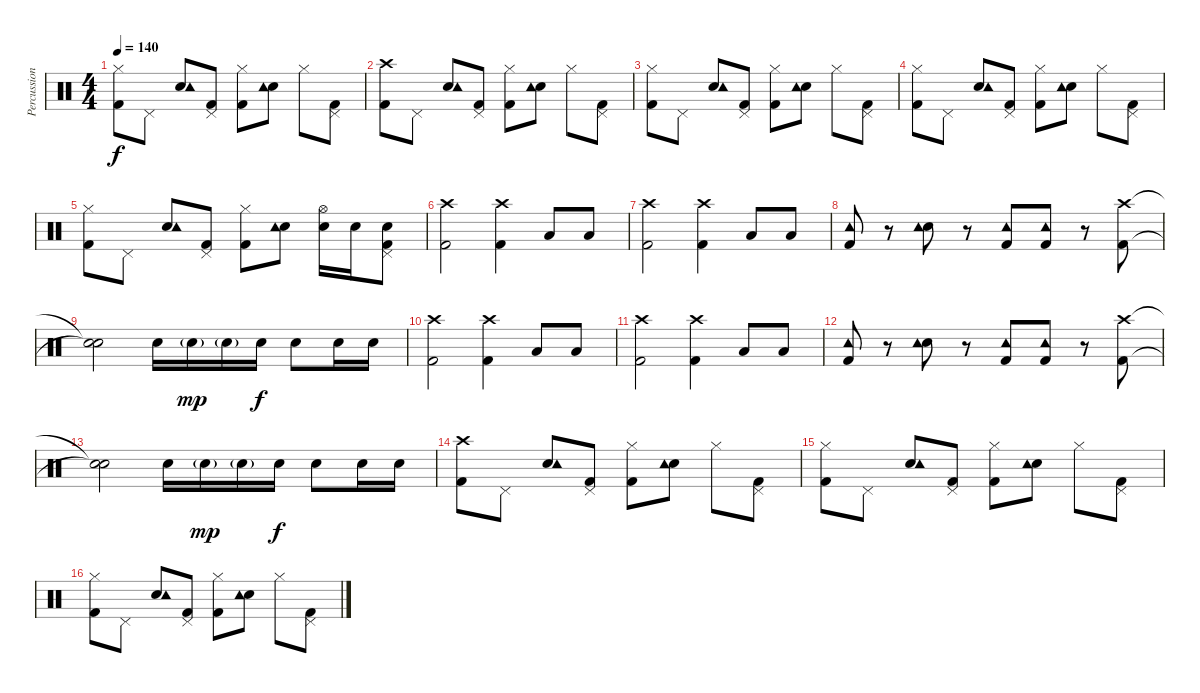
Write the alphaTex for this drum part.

\track ("Percussion" "Percussion") {instrument percussion}
\staff {score}
\articulation defaults
\ts (4 4)
\tempo 140
\clef neutral
\ks c
("Kick (hit) 2" "Hi-Hat (closed)").8{dy f} "Pedal Hi-Hat (hit)".8 ("Electric Snare (hit)" "Tambourine (hit)").8 ("Kick (hit) 2" "Pedal Hi-Hat (hit)").8 ("Kick (hit) 2" "Hi-Hat (closed)").8 ("Electric Snare (hit)" "Tambourine (hit)").8 "Hi-Hat (closed)".8 ("Kick (hit) 2" "Pedal Hi-Hat (hit)").8 |
("Kick (hit) 2" "Crash high (hit)").8 "Pedal Hi-Hat (hit)".8 ("Electric Snare (hit)" "Tambourine (hit)").8 ("Kick (hit) 2" "Pedal Hi-Hat (hit)").8 ("Kick (hit) 2" "Hi-Hat (closed)").8 ("Electric Snare (hit)" "Tambourine (hit)").8 "Hi-Hat (closed)".8 ("Kick (hit) 2" "Pedal Hi-Hat (hit)").8 |
("Kick (hit) 2" "Hi-Hat (closed)").8 "Pedal Hi-Hat (hit)".8 ("Electric Snare (hit)" "Tambourine (hit)").8 ("Kick (hit) 2" "Pedal Hi-Hat (hit)").8 ("Kick (hit) 2" "Hi-Hat (closed)").8 ("Electric Snare (hit)" "Tambourine (hit)").8 "Hi-Hat (closed)".8 ("Kick (hit) 2" "Pedal Hi-Hat (hit)").8 |
("Kick (hit) 2" "Hi-Hat (closed)").8 "Pedal Hi-Hat (hit)".8 ("Electric Snare (hit)" "Tambourine (hit)").8 ("Kick (hit) 2" "Pedal Hi-Hat (hit)").8 ("Kick (hit) 2" "Hi-Hat (closed)").8 ("Electric Snare (hit)" "Tambourine (hit)").8 "Hi-Hat (closed)".8 ("Kick (hit) 2" "Pedal Hi-Hat (hit)").8 |
("Kick (hit) 2" "Hi-Hat (closed)").8 "Pedal Hi-Hat (hit)".8 ("Electric Snare (hit)" "Tambourine (hit)").8 ("Kick (hit) 2" "Pedal Hi-Hat (hit)").8 ("Kick (hit) 2" "Hi-Hat (closed)").8 ("Electric Snare (hit)" "Tambourine (hit)").8 ("Electric Snare (hit)" "Hi-Hat (open)").16 "Electric Snare (hit)".16 ("Kick (hit) 2" "Electric Snare (hit)" "Pedal Hi-Hat (hit)").8 |
("Kick (hit) 2" "Crash high (hit)").2 ("Kick (hit) 2" "Crash high (hit)").4 "Low Tom (hit)".8 "Low Tom (hit)".8 |
("Kick (hit) 2" "Crash high (hit)").2 ("Kick (hit) 2" "Crash high (hit)").4 "Low Floor Tom (hit)".8 "Low Tom (hit)".8 |
("Kick (hit) 2" "Tambourine (hit)").8 r.8 ("Electric Snare (hit)" "Tambourine (hit)").8 r.8 ("Kick (hit) 2" "Tambourine (hit)").8 ("Kick (hit) 2" "Tambourine (hit)").8 r.8 ("Kick (hit) 2" "Crash high (hit)").8 |
("Snare (hit)"{t} "Snare (hit)"{t}).2 "Electric Snare (hit)".16 "Electric Snare (hit)"{g}.16{dy mp} "Electric Snare (hit)"{g}.16 "Electric Snare (hit)".16{dy f} "Electric Snare (hit)".8 "Electric Snare (hit)".16 "Electric Snare (hit)".16 |
("Kick (hit) 2" "Crash high (hit)").2 ("Kick (hit) 2" "Crash high (hit)").4 "Low Tom (hit)".8 "Low Tom (hit)".8 |
("Kick (hit) 2" "Crash high (hit)").2 ("Kick (hit) 2" "Crash high (hit)").4 "Low Floor Tom (hit)".8 "Low Tom (hit)".8 |
("Kick (hit) 2" "Tambourine (hit)").8 r.8 ("Electric Snare (hit)" "Tambourine (hit)").8 r.8 ("Kick (hit) 2" "Tambourine (hit)").8 ("Kick (hit) 2" "Tambourine (hit)").8 r.8 ("Kick (hit) 2" "Crash high (hit)").8 |
("Snare (hit)"{t} "Snare (hit)"{t}).2 "Electric Snare (hit)".16 "Electric Snare (hit)"{g}.16{dy mp} "Electric Snare (hit)"{g}.16 "Electric Snare (hit)".16{dy f} "Electric Snare (hit)".8 "Electric Snare (hit)".16 "Electric Snare (hit)".16 |
("Kick (hit) 2" "Crash high (hit)").8 "Pedal Hi-Hat (hit)".8 ("Electric Snare (hit)" "Tambourine (hit)").8 ("Kick (hit) 2" "Pedal Hi-Hat (hit)").8 ("Kick (hit) 2" "Hi-Hat (closed)").8 ("Electric Snare (hit)" "Tambourine (hit)").8 "Hi-Hat (closed)".8 ("Kick (hit) 2" "Pedal Hi-Hat (hit)").8 |
("Kick (hit) 2" "Hi-Hat (closed)").8 "Pedal Hi-Hat (hit)".8 ("Electric Snare (hit)" "Tambourine (hit)").8 ("Kick (hit) 2" "Pedal Hi-Hat (hit)").8 ("Kick (hit) 2" "Hi-Hat (closed)").8 ("Electric Snare (hit)" "Tambourine (hit)").8 "Hi-Hat (closed)".8 ("Kick (hit) 2" "Pedal Hi-Hat (hit)").8 |
("Kick (hit) 2" "Hi-Hat (closed)").8 "Pedal Hi-Hat (hit)".8 ("Electric Snare (hit)" "Tambourine (hit)").8 ("Kick (hit) 2" "Pedal Hi-Hat (hit)").8 ("Kick (hit) 2" "Hi-Hat (closed)").8 ("Electric Snare (hit)" "Tambourine (hit)").8 "Hi-Hat (closed)".8 ("Kick (hit) 2" "Pedal Hi-Hat (hit)").8
